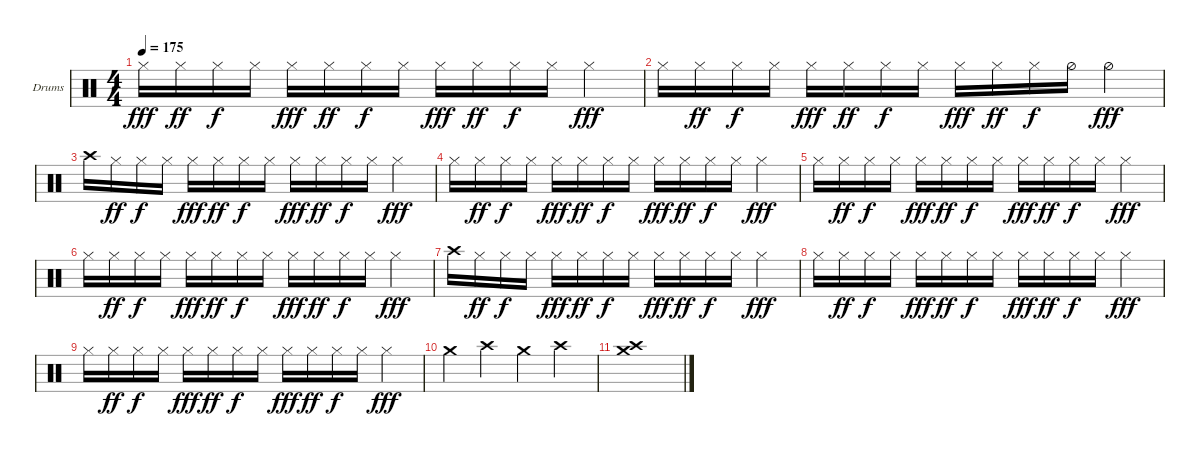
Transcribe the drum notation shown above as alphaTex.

\defaultSystemsLayout 4
\bracketExtendMode groupsimilarinstruments
\firstSystemTrackNameOrientation horizontal
\otherSystemsTrackNameOrientation horizontal
\track ("Helders" "Drums") {instrument percussion}
\staff {score}
\articulation defaults
\ts (4 4)
\tempo 175
\clef neutral
\ks c "Hi-Hat (closed)".16{dy fff} "Hi-Hat (closed)".16{dy ff} "Hi-Hat (closed)".16{dy f} "Hi-Hat (closed)".16 "Hi-Hat (closed)".16{dy fff} "Hi-Hat (closed)".16{dy ff} "Hi-Hat (closed)".16{dy f} "Hi-Hat (closed)".16 "Hi-Hat (closed)".16{dy fff} "Hi-Hat (closed)".16{dy ff} "Hi-Hat (closed)".16{dy f} "Hi-Hat (closed)".16 "Hi-Hat (closed)".4{dy fff}
|
"Hi-Hat (closed)".16 "Hi-Hat (closed)".16{dy ff} "Hi-Hat (closed)".16{dy f} "Hi-Hat (closed)".16 "Hi-Hat (closed)".16{dy fff} "Hi-Hat (closed)".16{dy ff} "Hi-Hat (closed)".16{dy f} "Hi-Hat (closed)".16 "Hi-Hat (closed)".16{dy fff} "Hi-Hat (closed)".16{dy ff} "Hi-Hat (closed)".16{dy f} "Hi-Hat (half)".16 "Hi-Hat (half)".4{dy fff} |
"Crash high (hit)".16 "Hi-Hat (closed)".16{dy ff} "Hi-Hat (closed)".16{dy f} "Hi-Hat (closed)".16 "Hi-Hat (closed)".16{dy fff} "Hi-Hat (closed)".16{dy ff} "Hi-Hat (closed)".16{dy f} "Hi-Hat (closed)".16 "Hi-Hat (closed)".16{dy fff} "Hi-Hat (closed)".16{dy ff} "Hi-Hat (closed)".16{dy f} "Hi-Hat (closed)".16 "Hi-Hat (closed)".4{dy fff} |
"Hi-Hat (closed)".16 "Hi-Hat (closed)".16{dy ff} "Hi-Hat (closed)".16{dy f} "Hi-Hat (closed)".16 "Hi-Hat (closed)".16{dy fff} "Hi-Hat (closed)".16{dy ff} "Hi-Hat (closed)".16{dy f} "Hi-Hat (closed)".16 "Hi-Hat (closed)".16{dy fff} "Hi-Hat (closed)".16{dy ff} "Hi-Hat (closed)".16{dy f} "Hi-Hat (closed)".16 "Hi-Hat (closed)".4{dy fff} |
"Hi-Hat (closed)".16 "Hi-Hat (closed)".16{dy ff} "Hi-Hat (closed)".16{dy f} "Hi-Hat (closed)".16 "Hi-Hat (closed)".16{dy fff} "Hi-Hat (closed)".16{dy ff} "Hi-Hat (closed)".16{dy f} "Hi-Hat (closed)".16 "Hi-Hat (closed)".16{dy fff} "Hi-Hat (closed)".16{dy ff} "Hi-Hat (closed)".16{dy f} "Hi-Hat (closed)".16 "Hi-Hat (closed)".4{dy fff} |
"Hi-Hat (closed)".16 "Hi-Hat (closed)".16{dy ff} "Hi-Hat (closed)".16{dy f} "Hi-Hat (closed)".16 "Hi-Hat (closed)".16{dy fff} "Hi-Hat (closed)".16{dy ff} "Hi-Hat (closed)".16{dy f} "Hi-Hat (closed)".16 "Hi-Hat (closed)".16{dy fff} "Hi-Hat (closed)".16{dy ff} "Hi-Hat (closed)".16{dy f} "Hi-Hat (closed)".16 "Hi-Hat (closed)".4{dy fff} |
"Crash high (hit)".16 "Hi-Hat (closed)".16{dy ff} "Hi-Hat (closed)".16{dy f} "Hi-Hat (closed)".16 "Hi-Hat (closed)".16{dy fff} "Hi-Hat (closed)".16{dy ff} "Hi-Hat (closed)".16{dy f} "Hi-Hat (closed)".16 "Hi-Hat (closed)".16{dy fff} "Hi-Hat (closed)".16{dy ff} "Hi-Hat (closed)".16{dy f} "Hi-Hat (closed)".16 "Hi-Hat (closed)".4{dy fff} |
"Hi-Hat (closed)".16 "Hi-Hat (closed)".16{dy ff} "Hi-Hat (closed)".16{dy f} "Hi-Hat (closed)".16 "Hi-Hat (closed)".16{dy fff} "Hi-Hat (closed)".16{dy ff} "Hi-Hat (closed)".16{dy f} "Hi-Hat (closed)".16 "Hi-Hat (closed)".16{dy fff} "Hi-Hat (closed)".16{dy ff} "Hi-Hat (closed)".16{dy f} "Hi-Hat (closed)".16 "Hi-Hat (closed)".4{dy fff} |
"Hi-Hat (closed)".16 "Hi-Hat (closed)".16{dy ff} "Hi-Hat (closed)".16{dy f} "Hi-Hat (closed)".16 "Hi-Hat (closed)".16{dy fff} "Hi-Hat (closed)".16{dy ff} "Hi-Hat (closed)".16{dy f} "Hi-Hat (closed)".16 "Hi-Hat (closed)".16{dy fff} "Hi-Hat (closed)".16{dy ff} "Hi-Hat (closed)".16{dy f} "Hi-Hat (closed)".16 "Hi-Hat (closed)".4{dy fff} |
"Crash medium (hit)".4 "Crash high (hit)".4 "Crash medium (hit)".4 "Crash high (hit)".4 |
("Crash high (hit)" "Crash medium (hit)").1
